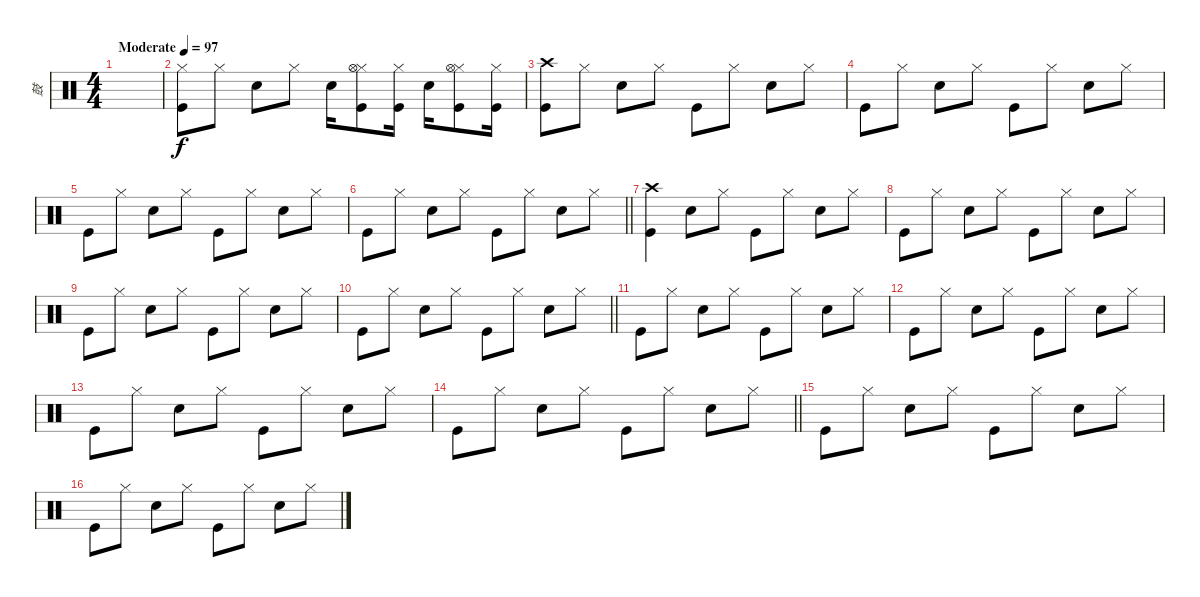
\track ("鼓" "鼓") {instrument percussion}
\staff {score}
\articulation defaults
\ts (4 4)
\tempo (97 "Moderate")
\clef neutral
\ks c
|
("Hi-Hat (closed)" "Kick (hit)").8 "Hi-Hat (closed)".8 "Electric Snare (hit)".8 "Hi-Hat (closed)".8 "Electric Snare (hit)".16 ("Hi-Hat (closed)" "Hi-Hat (open)" "Kick (hit)").8 ("Hi-Hat (closed)" "Kick (hit)").16 "Electric Snare (hit)".16 ("Hi-Hat (closed)" "Hi-Hat (open)" "Kick (hit)").8 ("Hi-Hat (closed)" "Kick (hit)").16 |
("Crash high (hit)" "Kick (hit)").8 "Hi-Hat (closed)".8 "Electric Snare (hit)".8 "Hi-Hat (closed)".8 "Kick (hit)".8 "Hi-Hat (closed)".8 "Electric Snare (hit)".8 "Hi-Hat (closed)".8 |
"Kick (hit)".8 "Hi-Hat (closed)".8 "Electric Snare (hit)".8 "Hi-Hat (closed)".8 "Kick (hit)".8 "Hi-Hat (closed)".8 "Electric Snare (hit)".8 "Hi-Hat (closed)".8 |
"Kick (hit)".8 "Hi-Hat (closed)".8 "Electric Snare (hit)".8 "Hi-Hat (closed)".8 "Kick (hit)".8 "Hi-Hat (closed)".8 "Electric Snare (hit)".8 "Hi-Hat (closed)".8 |
\barLineRight lightlight "Kick (hit)".8 "Hi-Hat (closed)".8 "Electric Snare (hit)".8 "Hi-Hat (closed)".8 "Kick (hit)".8 "Hi-Hat (closed)".8 "Electric Snare (hit)".8 "Hi-Hat (closed)".8
|
\section ("" "")
("Crash high (hit)" "Kick (hit)").4 "Electric Snare (hit)".8 "Hi-Hat (closed)".8 "Kick (hit)".8 "Hi-Hat (closed)".8 "Electric Snare (hit)".8 "Hi-Hat (closed)".8 |
"Kick (hit)".8 "Hi-Hat (closed)".8 "Electric Snare (hit)".8 "Hi-Hat (closed)".8 "Kick (hit)".8 "Hi-Hat (closed)".8 "Electric Snare (hit)".8 "Hi-Hat (closed)".8 |
"Kick (hit)".8 "Hi-Hat (closed)".8 "Electric Snare (hit)".8 "Hi-Hat (closed)".8 "Kick (hit)".8 "Hi-Hat (closed)".8 "Electric Snare (hit)".8 "Hi-Hat (closed)".8 |
\barLineRight lightlight "Kick (hit)".8 "Hi-Hat (closed)".8 "Electric Snare (hit)".8 "Hi-Hat (closed)".8 "Kick (hit)".8 "Hi-Hat (closed)".8 "Electric Snare (hit)".8 "Hi-Hat (closed)".8
|
\section ("" "")
"Kick (hit)".8 "Hi-Hat (closed)".8 "Electric Snare (hit)".8 "Hi-Hat (closed)".8 "Kick (hit)".8 "Hi-Hat (closed)".8 "Electric Snare (hit)".8 "Hi-Hat (closed)".8 |
"Kick (hit)".8 "Hi-Hat (closed)".8 "Electric Snare (hit)".8 "Hi-Hat (closed)".8 "Kick (hit)".8 "Hi-Hat (closed)".8 "Electric Snare (hit)".8 "Hi-Hat (closed)".8 |
"Kick (hit)".8 "Hi-Hat (closed)".8 "Electric Snare (hit)".8 "Hi-Hat (closed)".8 "Kick (hit)".8 "Hi-Hat (closed)".8 "Electric Snare (hit)".8 "Hi-Hat (closed)".8 |
\barLineRight lightlight "Kick (hit)".8 "Hi-Hat (closed)".8 "Electric Snare (hit)".8 "Hi-Hat (closed)".8 "Kick (hit)".8 "Hi-Hat (closed)".8 "Electric Snare (hit)".8 "Hi-Hat (closed)".8
|
\section ("" "")
"Kick (hit)".8 "Hi-Hat (closed)".8 "Electric Snare (hit)".8 "Hi-Hat (closed)".8 "Kick (hit)".8 "Hi-Hat (closed)".8 "Electric Snare (hit)".8 "Hi-Hat (closed)".8 |
"Kick (hit)".8 "Hi-Hat (closed)".8 "Electric Snare (hit)".8 "Hi-Hat (closed)".8 "Kick (hit)".8 "Hi-Hat (closed)".8 "Electric Snare (hit)".8 "Hi-Hat (closed)".8
